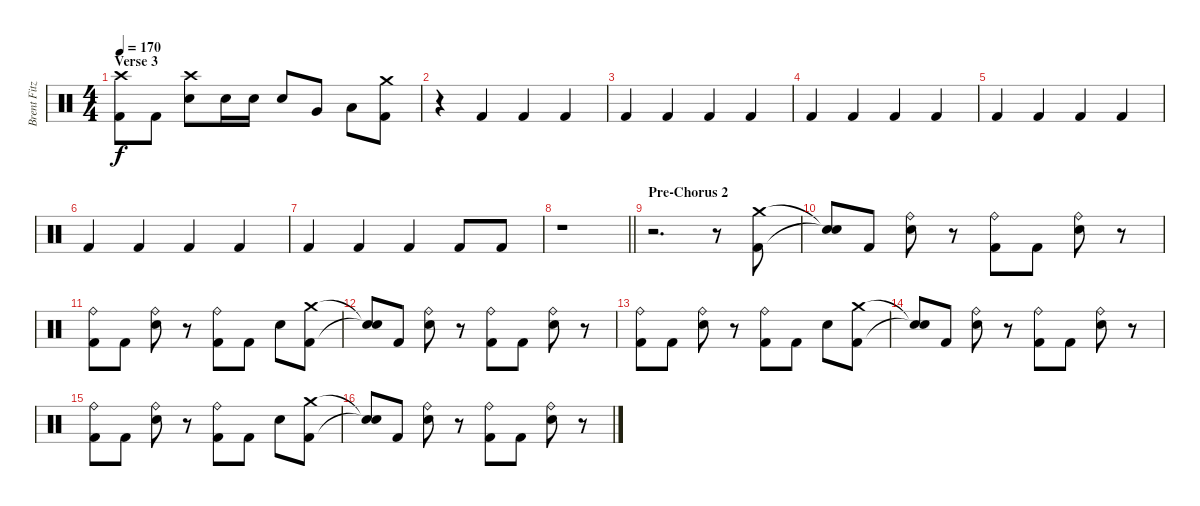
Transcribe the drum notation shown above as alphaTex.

\track ("Brent Fitz" "Brent Fitz") {instrument percussion}
\staff {score}
\articulation defaults
\ts (4 4)
\section ("" "Verse 3")
\tempo 170
\clef neutral
\ks c
("Crash high (hit)" "Kick (hit) 2").8{dy f} "Kick (hit) 2".8 ("Crash high (hit)" "Electric Snare (hit)").8 "Electric Snare (hit)".16 "Electric Snare (hit)".16 "Electric Snare (hit)".8 "Very Low Tom (hit)".8 "Low Tom (hit)".8 ("Crash medium (hit)" "Kick (hit) 2").8 |
r.4 "Kick (hit) 2".4 "Kick (hit) 2".4 "Kick (hit) 2".4 |
"Kick (hit) 2".4 "Kick (hit) 2".4 "Kick (hit) 2".4 "Kick (hit) 2".4 |
"Kick (hit) 2".4 "Kick (hit) 2".4 "Kick (hit) 2".4 "Kick (hit) 2".4 |
"Kick (hit) 2".4 "Kick (hit) 2".4 "Kick (hit) 2".4 "Kick (hit) 2".4 |
"Kick (hit) 2".4 "Kick (hit) 2".4 "Kick (hit) 2".4 "Kick (hit) 2".4 |
"Kick (hit) 2".4 "Kick (hit) 2".4 "Kick (hit) 2".4 "Kick (hit) 2".8 "Kick (hit) 2".8 |
\barLineRight lightlight
r.1 |
\section ("" "Pre-Chorus 2")
r.2{d} r.8 ("Crash medium (hit)" "Kick (hit) 2").8 |
("Snare (hit)"{t} "Snare (hit)"{t}).8 "Kick (hit) 2".8 ("Ride (bell)" "Electric Snare (hit)").8 r.8 ("Ride (bell)" "Kick (hit) 2").8 "Kick (hit) 2".8 ("Ride (bell)" "Electric Snare (hit)").8 r.8 |
("Ride (bell)" "Kick (hit) 2").8 "Kick (hit) 2".8 ("Ride (bell)" "Electric Snare (hit)").8 r.8 ("Ride (bell)" "Kick (hit) 2").8 "Kick (hit) 2".8 "Electric Snare (hit)".8 ("Crash medium (hit)" "Kick (hit) 2").8 |
("Snare (hit)"{t} "Snare (hit)"{t}).8 "Kick (hit) 2".8 ("Ride (bell)" "Electric Snare (hit)").8 r.8 ("Ride (bell)" "Kick (hit) 2").8 "Kick (hit) 2".8 ("Ride (bell)" "Electric Snare (hit)").8 r.8 |
("Ride (bell)" "Kick (hit) 2").8 "Kick (hit) 2".8 ("Ride (bell)" "Electric Snare (hit)").8 r.8 ("Ride (bell)" "Kick (hit) 2").8 "Kick (hit) 2".8 "Electric Snare (hit)".8 ("Crash medium (hit)" "Kick (hit) 2").8 |
("Snare (hit)"{t} "Snare (hit)"{t}).8 "Kick (hit) 2".8 ("Ride (bell)" "Electric Snare (hit)").8 r.8 ("Ride (bell)" "Kick (hit) 2").8 "Kick (hit) 2".8 ("Ride (bell)" "Electric Snare (hit)").8 r.8 |
("Ride (bell)" "Kick (hit) 2").8 "Kick (hit) 2".8 ("Ride (bell)" "Electric Snare (hit)").8 r.8 ("Ride (bell)" "Kick (hit) 2").8 "Kick (hit) 2".8 "Electric Snare (hit)".8 ("Crash medium (hit)" "Kick (hit) 2").8 |
("Snare (hit)"{t} "Snare (hit)"{t}).8 "Kick (hit) 2".8 ("Ride (bell)" "Electric Snare (hit)").8 r.8 ("Ride (bell)" "Kick (hit) 2").8 "Kick (hit) 2".8 ("Ride (bell)" "Electric Snare (hit)").8 r.8
